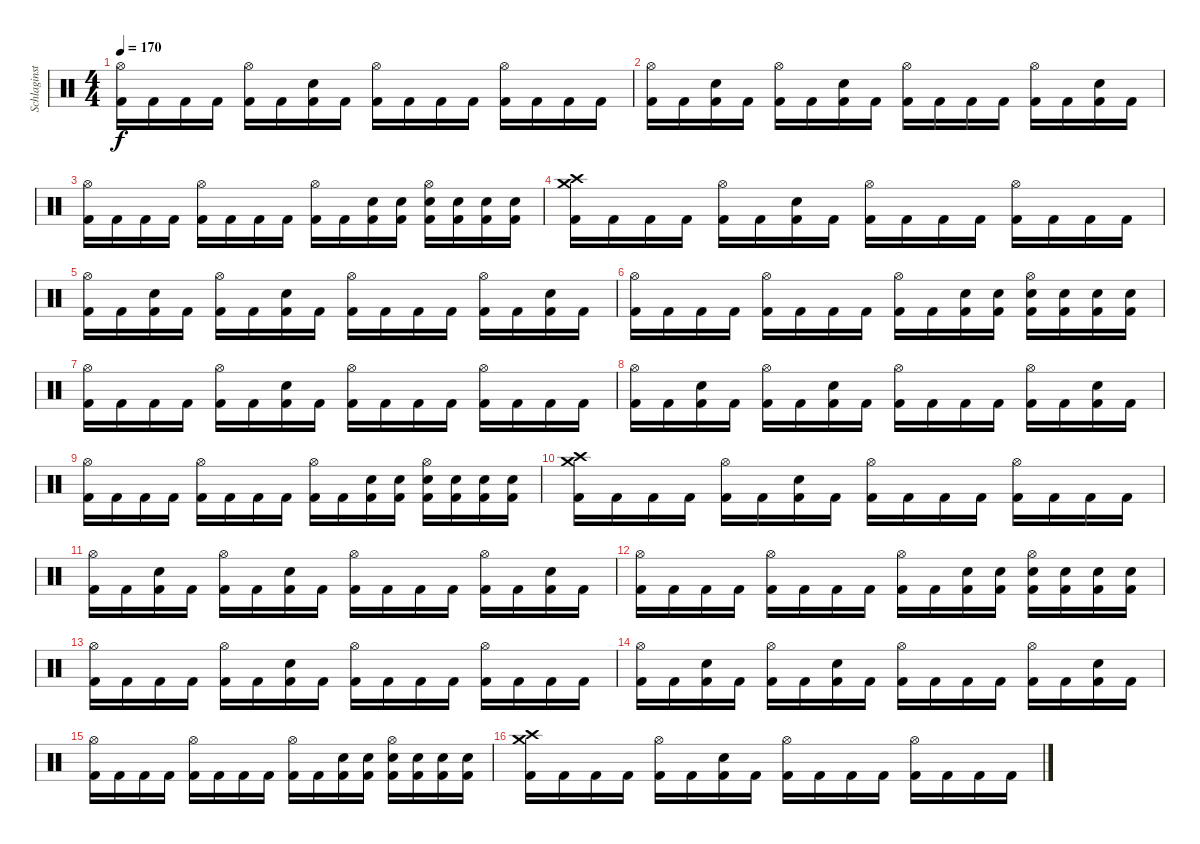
\track ("Schlaginstrumente - Auswahl" "Schlaginst") {instrument percussion}
\staff {score}
\articulation defaults
\ts (4 4)
\tempo 170
\clef neutral
\ks c
("Hi-Hat (open)" "Kick (hit) 2").16{dy f} "Kick (hit) 2".16 "Kick (hit) 2".16 "Kick (hit) 2".16 ("Hi-Hat (open)" "Kick (hit) 2").16 "Kick (hit) 2".16 ("Snare (hit) 2" "Kick (hit) 2").16 "Kick (hit) 2".16 ("Hi-Hat (open)" "Kick (hit) 2").16 "Kick (hit) 2".16 "Kick (hit) 2".16 "Kick (hit) 2".16 ("Hi-Hat (open)" "Kick (hit) 2").16 "Kick (hit) 2".16 "Kick (hit) 2".16 "Kick (hit) 2".16 |
("Hi-Hat (open)" "Kick (hit) 2").16 "Kick (hit) 2".16 ("Snare (hit) 2" "Kick (hit) 2").16 "Kick (hit) 2".16 ("Hi-Hat (open)" "Kick (hit) 2").16 "Kick (hit) 2".16 ("Snare (hit) 2" "Kick (hit) 2").16 "Kick (hit) 2".16 ("Hi-Hat (open)" "Kick (hit) 2").16 "Kick (hit) 2".16 "Kick (hit) 2".16 "Kick (hit) 2".16 ("Hi-Hat (open)" "Kick (hit) 2").16 "Kick (hit) 2".16 ("Snare (hit) 2" "Kick (hit) 2").16 "Kick (hit) 2".16 |
("Hi-Hat (open)" "Kick (hit) 2").16 "Kick (hit) 2".16 "Kick (hit) 2".16 "Kick (hit) 2".16 ("Hi-Hat (open)" "Kick (hit) 2").16 "Kick (hit) 2".16 "Kick (hit) 2".16 "Kick (hit) 2".16 ("Hi-Hat (open)" "Kick (hit) 2").16 "Kick (hit) 2".16 ("Snare (hit) 2" "Kick (hit) 2").16 ("Snare (hit) 2" "Kick (hit) 2").16 ("Hi-Hat (open)" "Snare (hit) 2" "Kick (hit) 2").16 ("Snare (hit) 2" "Kick (hit) 2").16 ("Snare (hit) 2" "Kick (hit) 2").16 ("Snare (hit) 2" "Kick (hit) 2").16 |
("Crash medium (hit)" "Crash high (hit)" "Kick (hit) 2").16 "Kick (hit) 2".16 "Kick (hit) 2".16 "Kick (hit) 2".16 ("Hi-Hat (open)" "Kick (hit) 2").16 "Kick (hit) 2".16 ("Snare (hit) 2" "Kick (hit) 2").16 "Kick (hit) 2".16 ("Hi-Hat (open)" "Kick (hit) 2").16 "Kick (hit) 2".16 "Kick (hit) 2".16 "Kick (hit) 2".16 ("Hi-Hat (open)" "Kick (hit) 2").16 "Kick (hit) 2".16 "Kick (hit) 2".16 "Kick (hit) 2".16 |
("Hi-Hat (open)" "Kick (hit) 2").16 "Kick (hit) 2".16 ("Snare (hit) 2" "Kick (hit) 2").16 "Kick (hit) 2".16 ("Hi-Hat (open)" "Kick (hit) 2").16 "Kick (hit) 2".16 ("Snare (hit) 2" "Kick (hit) 2").16 "Kick (hit) 2".16 ("Hi-Hat (open)" "Kick (hit) 2").16 "Kick (hit) 2".16 "Kick (hit) 2".16 "Kick (hit) 2".16 ("Hi-Hat (open)" "Kick (hit) 2").16 "Kick (hit) 2".16 ("Snare (hit) 2" "Kick (hit) 2").16 "Kick (hit) 2".16 |
("Hi-Hat (open)" "Kick (hit) 2").16 "Kick (hit) 2".16 "Kick (hit) 2".16 "Kick (hit) 2".16 ("Hi-Hat (open)" "Kick (hit) 2").16 "Kick (hit) 2".16 "Kick (hit) 2".16 "Kick (hit) 2".16 ("Hi-Hat (open)" "Kick (hit) 2").16 "Kick (hit) 2".16 ("Snare (hit) 2" "Kick (hit) 2").16 ("Snare (hit) 2" "Kick (hit) 2").16 ("Hi-Hat (open)" "Snare (hit) 2" "Kick (hit) 2").16 ("Snare (hit) 2" "Kick (hit) 2").16 ("Snare (hit) 2" "Kick (hit) 2").16 ("Snare (hit) 2" "Kick (hit) 2").16 |
("Hi-Hat (open)" "Kick (hit) 2").16 "Kick (hit) 2".16 "Kick (hit) 2".16 "Kick (hit) 2".16 ("Hi-Hat (open)" "Kick (hit) 2").16 "Kick (hit) 2".16 ("Snare (hit) 2" "Kick (hit) 2").16 "Kick (hit) 2".16 ("Hi-Hat (open)" "Kick (hit) 2").16 "Kick (hit) 2".16 "Kick (hit) 2".16 "Kick (hit) 2".16 ("Hi-Hat (open)" "Kick (hit) 2").16 "Kick (hit) 2".16 "Kick (hit) 2".16 "Kick (hit) 2".16 |
("Hi-Hat (open)" "Kick (hit) 2").16 "Kick (hit) 2".16 ("Snare (hit) 2" "Kick (hit) 2").16 "Kick (hit) 2".16 ("Hi-Hat (open)" "Kick (hit) 2").16 "Kick (hit) 2".16 ("Snare (hit) 2" "Kick (hit) 2").16 "Kick (hit) 2".16 ("Hi-Hat (open)" "Kick (hit) 2").16 "Kick (hit) 2".16 "Kick (hit) 2".16 "Kick (hit) 2".16 ("Hi-Hat (open)" "Kick (hit) 2").16 "Kick (hit) 2".16 ("Snare (hit) 2" "Kick (hit) 2").16 "Kick (hit) 2".16 |
("Hi-Hat (open)" "Kick (hit) 2").16 "Kick (hit) 2".16 "Kick (hit) 2".16 "Kick (hit) 2".16 ("Hi-Hat (open)" "Kick (hit) 2").16 "Kick (hit) 2".16 "Kick (hit) 2".16 "Kick (hit) 2".16 ("Hi-Hat (open)" "Kick (hit) 2").16 "Kick (hit) 2".16 ("Snare (hit) 2" "Kick (hit) 2").16 ("Snare (hit) 2" "Kick (hit) 2").16 ("Hi-Hat (open)" "Snare (hit) 2" "Kick (hit) 2").16 ("Snare (hit) 2" "Kick (hit) 2").16 ("Snare (hit) 2" "Kick (hit) 2").16 ("Snare (hit) 2" "Kick (hit) 2").16 |
("Crash medium (hit)" "Crash high (hit)" "Kick (hit) 2").16 "Kick (hit) 2".16 "Kick (hit) 2".16 "Kick (hit) 2".16 ("Hi-Hat (open)" "Kick (hit) 2").16 "Kick (hit) 2".16 ("Snare (hit) 2" "Kick (hit) 2").16 "Kick (hit) 2".16 ("Hi-Hat (open)" "Kick (hit) 2").16 "Kick (hit) 2".16 "Kick (hit) 2".16 "Kick (hit) 2".16 ("Hi-Hat (open)" "Kick (hit) 2").16 "Kick (hit) 2".16 "Kick (hit) 2".16 "Kick (hit) 2".16 |
("Hi-Hat (open)" "Kick (hit) 2").16 "Kick (hit) 2".16 ("Snare (hit) 2" "Kick (hit) 2").16 "Kick (hit) 2".16 ("Hi-Hat (open)" "Kick (hit) 2").16 "Kick (hit) 2".16 ("Snare (hit) 2" "Kick (hit) 2").16 "Kick (hit) 2".16 ("Hi-Hat (open)" "Kick (hit) 2").16 "Kick (hit) 2".16 "Kick (hit) 2".16 "Kick (hit) 2".16 ("Hi-Hat (open)" "Kick (hit) 2").16 "Kick (hit) 2".16 ("Snare (hit) 2" "Kick (hit) 2").16 "Kick (hit) 2".16 |
("Hi-Hat (open)" "Kick (hit) 2").16 "Kick (hit) 2".16 "Kick (hit) 2".16 "Kick (hit) 2".16 ("Hi-Hat (open)" "Kick (hit) 2").16 "Kick (hit) 2".16 "Kick (hit) 2".16 "Kick (hit) 2".16 ("Hi-Hat (open)" "Kick (hit) 2").16 "Kick (hit) 2".16 ("Snare (hit) 2" "Kick (hit) 2").16 ("Snare (hit) 2" "Kick (hit) 2").16 ("Hi-Hat (open)" "Snare (hit) 2" "Kick (hit) 2").16 ("Snare (hit) 2" "Kick (hit) 2").16 ("Snare (hit) 2" "Kick (hit) 2").16 ("Snare (hit) 2" "Kick (hit) 2").16 |
("Hi-Hat (open)" "Kick (hit) 2").16 "Kick (hit) 2".16 "Kick (hit) 2".16 "Kick (hit) 2".16 ("Hi-Hat (open)" "Kick (hit) 2").16 "Kick (hit) 2".16 ("Snare (hit) 2" "Kick (hit) 2").16 "Kick (hit) 2".16 ("Hi-Hat (open)" "Kick (hit) 2").16 "Kick (hit) 2".16 "Kick (hit) 2".16 "Kick (hit) 2".16 ("Hi-Hat (open)" "Kick (hit) 2").16 "Kick (hit) 2".16 "Kick (hit) 2".16 "Kick (hit) 2".16 |
("Hi-Hat (open)" "Kick (hit) 2").16 "Kick (hit) 2".16 ("Snare (hit) 2" "Kick (hit) 2").16 "Kick (hit) 2".16 ("Hi-Hat (open)" "Kick (hit) 2").16 "Kick (hit) 2".16 ("Snare (hit) 2" "Kick (hit) 2").16 "Kick (hit) 2".16 ("Hi-Hat (open)" "Kick (hit) 2").16 "Kick (hit) 2".16 "Kick (hit) 2".16 "Kick (hit) 2".16 ("Hi-Hat (open)" "Kick (hit) 2").16 "Kick (hit) 2".16 ("Snare (hit) 2" "Kick (hit) 2").16 "Kick (hit) 2".16 |
("Hi-Hat (open)" "Kick (hit) 2").16 "Kick (hit) 2".16 "Kick (hit) 2".16 "Kick (hit) 2".16 ("Hi-Hat (open)" "Kick (hit) 2").16 "Kick (hit) 2".16 "Kick (hit) 2".16 "Kick (hit) 2".16 ("Hi-Hat (open)" "Kick (hit) 2").16 "Kick (hit) 2".16 ("Snare (hit) 2" "Kick (hit) 2").16 ("Snare (hit) 2" "Kick (hit) 2").16 ("Hi-Hat (open)" "Snare (hit) 2" "Kick (hit) 2").16 ("Snare (hit) 2" "Kick (hit) 2").16 ("Snare (hit) 2" "Kick (hit) 2").16 ("Snare (hit) 2" "Kick (hit) 2").16 |
("Crash medium (hit)" "Crash high (hit)" "Kick (hit) 2").16 "Kick (hit) 2".16 "Kick (hit) 2".16 "Kick (hit) 2".16 ("Hi-Hat (open)" "Kick (hit) 2").16 "Kick (hit) 2".16 ("Snare (hit) 2" "Kick (hit) 2").16 "Kick (hit) 2".16 ("Hi-Hat (open)" "Kick (hit) 2").16 "Kick (hit) 2".16 "Kick (hit) 2".16 "Kick (hit) 2".16 ("Hi-Hat (open)" "Kick (hit) 2").16 "Kick (hit) 2".16 "Kick (hit) 2".16 "Kick (hit) 2".16
